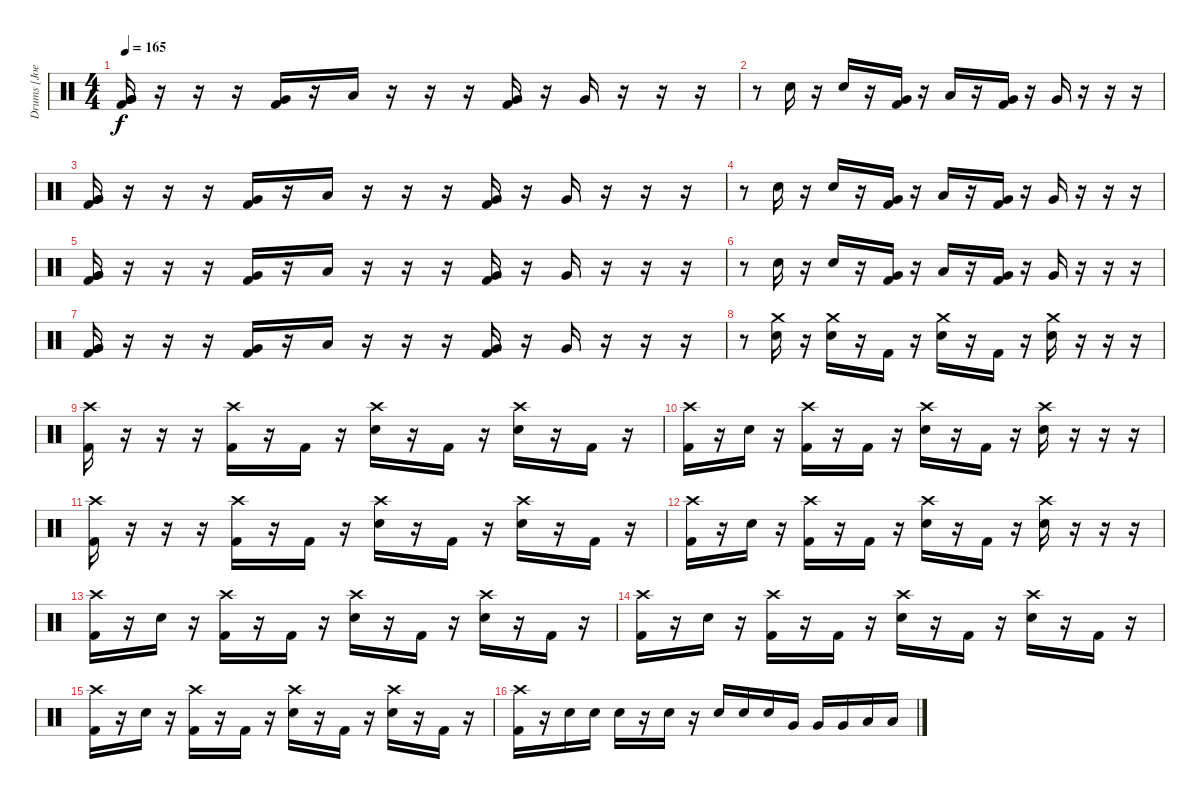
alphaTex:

\track ("Drums [Joel Paolucci]" "Drums [Joe") {instrument percussion}
\staff {score}
\articulation defaults
\ts (4 4)
\tempo 165
\clef neutral
\ks c
("Very Low Tom (hit)" "Very Low Tom (hit)" "Kick (hit) 2").16{dy f} r.16 r.16 r.16 ("Very Low Tom (hit)" "Kick (hit) 2").16 r.16 "Low Tom (hit)".16 r.16 r.16 r.16 ("Very Low Tom (hit)" "Kick (hit) 2").16 r.16 "Very Low Tom (hit)".16 r.16 r.16 r.16 |
r.8 "Electric Snare (hit)".16 r.16 "Electric Snare (hit)".16 r.16 ("Very Low Tom (hit)" "Kick (hit) 2").16 r.16 "Low Tom (hit)".16 r.16 ("Very Low Tom (hit)" "Kick (hit) 2").16 r.16 "Very Low Tom (hit)".16 r.16 r.16 r.16 |
("Very Low Tom (hit)" "Very Low Tom (hit)" "Kick (hit) 2").16 r.16 r.16 r.16 ("Very Low Tom (hit)" "Kick (hit) 2").16 r.16 "Low Tom (hit)".16 r.16 r.16 r.16 ("Very Low Tom (hit)" "Kick (hit) 2").16 r.16 "Very Low Tom (hit)".16 r.16 r.16 r.16 |
r.8 "Electric Snare (hit)".16 r.16 "Electric Snare (hit)".16 r.16 ("Very Low Tom (hit)" "Kick (hit) 2").16 r.16 "Low Tom (hit)".16 r.16 ("Very Low Tom (hit)" "Kick (hit) 2").16 r.16 "Very Low Tom (hit)".16 r.16 r.16 r.16 |
("Very Low Tom (hit)" "Very Low Tom (hit)" "Kick (hit) 2").16 r.16 r.16 r.16 ("Very Low Tom (hit)" "Kick (hit) 2").16 r.16 "Low Tom (hit)".16 r.16 r.16 r.16 ("Very Low Tom (hit)" "Kick (hit) 2").16 r.16 "Very Low Tom (hit)".16 r.16 r.16 r.16 |
r.8 "Electric Snare (hit)".16 r.16 "Electric Snare (hit)".16 r.16 ("Very Low Tom (hit)" "Kick (hit) 2").16 r.16 "Low Tom (hit)".16 r.16 ("Very Low Tom (hit)" "Kick (hit) 2").16 r.16 "Very Low Tom (hit)".16 r.16 r.16 r.16 |
("Very Low Tom (hit)" "Very Low Tom (hit)" "Kick (hit) 2").16 r.16 r.16 r.16 ("Very Low Tom (hit)" "Kick (hit) 2").16 r.16 "Low Tom (hit)".16 r.16 r.16 r.16 ("Very Low Tom (hit)" "Kick (hit) 2").16 r.16 "Very Low Tom (hit)".16 r.16 r.16 r.16 |
r.8 ("Crash medium (hit)" "Electric Snare (hit)").16 r.16 ("Crash medium (hit)" "Electric Snare (hit)").16 r.16 "Kick (hit) 2".16 r.16 ("Crash medium (hit)" "Electric Snare (hit)").16 r.16 "Kick (hit) 2".16 r.16 ("Crash medium (hit)" "Electric Snare (hit)").16 r.16 r.16 r.16 |
("Crash high (hit)" "Kick (hit) 2").16 r.16 r.16 r.16 ("Crash high (hit)" "Kick (hit) 2").16 r.16 "Kick (hit) 2".16 r.16 ("Crash high (hit)" "Electric Snare (hit)").16 r.16 "Kick (hit) 2".16 r.16 ("Crash high (hit)" "Electric Snare (hit)").16 r.16 "Kick (hit) 2".16 r.16 |
("Crash high (hit)" "Kick (hit) 2").16 r.16 "Electric Snare (hit)".16 r.16 ("Crash high (hit)" "Kick (hit) 2").16 r.16 "Kick (hit) 2".16 r.16 ("Crash high (hit)" "Electric Snare (hit)").16 r.16 "Kick (hit) 2".16 r.16 ("Crash high (hit)" "Electric Snare (hit)").16 r.16 r.16 r.16 |
("Crash high (hit)" "Kick (hit) 2").16 r.16 r.16 r.16 ("Crash high (hit)" "Kick (hit) 2").16 r.16 "Kick (hit) 2".16 r.16 ("Crash high (hit)" "Electric Snare (hit)").16 r.16 "Kick (hit) 2".16 r.16 ("Crash high (hit)" "Electric Snare (hit)").16 r.16 "Kick (hit) 2".16 r.16 |
("Crash high (hit)" "Kick (hit) 2").16 r.16 "Electric Snare (hit)".16 r.16 ("Crash high (hit)" "Kick (hit) 2").16 r.16 "Kick (hit) 2".16 r.16 ("Crash high (hit)" "Electric Snare (hit)").16 r.16 "Kick (hit) 2".16 r.16 ("Crash high (hit)" "Electric Snare (hit)").16 r.16 r.16 r.16 |
("Crash high (hit)" "Kick (hit) 2").16 r.16 "Electric Snare (hit)".16 r.16 ("Crash high (hit)" "Kick (hit) 2").16 r.16 "Kick (hit) 2".16 r.16 ("Crash high (hit)" "Electric Snare (hit)").16 r.16 "Kick (hit) 2".16 r.16 ("Crash high (hit)" "Electric Snare (hit)").16 r.16 "Kick (hit) 2".16 r.16 |
("Crash high (hit)" "Kick (hit) 2").16 r.16 "Electric Snare (hit)".16 r.16 ("Crash high (hit)" "Kick (hit) 2").16 r.16 "Kick (hit) 2".16 r.16 ("Crash high (hit)" "Electric Snare (hit)").16 r.16 "Kick (hit) 2".16 r.16 ("Crash high (hit)" "Electric Snare (hit)").16 r.16 "Kick (hit) 2".16 r.16 |
("Crash high (hit)" "Kick (hit) 2").16 r.16 "Electric Snare (hit)".16 r.16 ("Crash high (hit)" "Kick (hit) 2").16 r.16 "Kick (hit) 2".16 r.16 ("Crash high (hit)" "Electric Snare (hit)").16 r.16 "Kick (hit) 2".16 r.16 ("Crash high (hit)" "Electric Snare (hit)").16 r.16 "Kick (hit) 2".16 r.16 |
("Crash high (hit)" "Kick (hit) 2").16 r.16 "Electric Snare (hit)".16 "Electric Snare (hit)".16 "Electric Snare (hit)".16 r.16 "Electric Snare (hit)".16 r.16 "Electric Snare (hit)".16 "Electric Snare (hit)".16 "Electric Snare (hit)".16 "Very Low Tom (hit)".16 "Very Low Tom (hit)".16 "Very Low Tom (hit)".16 "Low Floor Tom (hit)".16 "Low Floor Tom (hit)".16
